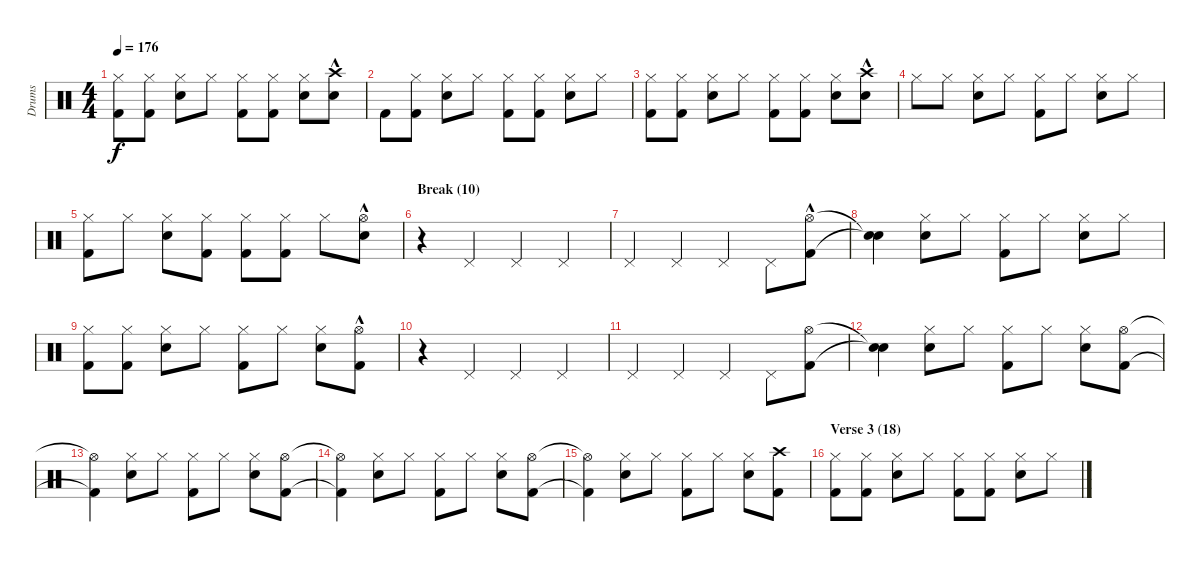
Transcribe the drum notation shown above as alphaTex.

\track ("Drums" "Drums") {instrument percussion}
\staff {score}
\articulation defaults
\ts (4 4)
\tempo 176
\clef neutral
\ks c
("Hi-Hat (closed)" "Kick (hit) 2").8{dy f} ("Hi-Hat (closed)" "Kick (hit) 2").8 ("Hi-Hat (closed)" "Snare (hit) 2").8 "Hi-Hat (closed)".8 ("Hi-Hat (closed)" "Kick (hit) 2").8 ("Hi-Hat (closed)" "Kick (hit) 2").8 ("Hi-Hat (closed)" "Snare (hit) 2").8 ("Crash high (hit)"{hac} "Snare (hit) 2").8 |
"Kick (hit) 2".8 ("Hi-Hat (closed)" "Kick (hit) 2").8 ("Hi-Hat (closed)" "Snare (hit) 2").8 "Hi-Hat (closed)".8 ("Hi-Hat (closed)" "Kick (hit) 2").8 ("Hi-Hat (closed)" "Kick (hit) 2").8 ("Hi-Hat (closed)" "Snare (hit) 2").8 "Hi-Hat (closed)".8 |
("Hi-Hat (closed)" "Kick (hit) 2").8 ("Hi-Hat (closed)" "Kick (hit) 2").8 ("Hi-Hat (closed)" "Snare (hit) 2").8 "Hi-Hat (closed)".8 ("Hi-Hat (closed)" "Kick (hit) 2").8 ("Hi-Hat (closed)" "Kick (hit) 2").8 ("Hi-Hat (closed)" "Snare (hit) 2").8 ("Crash high (hit)"{hac} "Snare (hit) 2").8 |
"Hi-Hat (closed)".8 "Hi-Hat (closed)".8 ("Hi-Hat (closed)" "Snare (hit) 2").8 "Hi-Hat (closed)".8 ("Hi-Hat (closed)" "Kick (hit) 2").8 "Hi-Hat (closed)".8 ("Hi-Hat (closed)" "Snare (hit) 2").8 "Hi-Hat (closed)".8 |
("Hi-Hat (closed)" "Kick (hit) 2").8 "Hi-Hat (closed)".8 ("Hi-Hat (closed)" "Snare (hit) 2").8 ("Hi-Hat (closed)" "Kick (hit) 2").8 ("Hi-Hat (closed)" "Kick (hit) 2").8 ("Hi-Hat (closed)" "Kick (hit) 2").8 "Hi-Hat (closed)".8 ("Hi-Hat (open)"{hac} "Snare (hit) 2").8 |
\section ("" "Break (10)")
r.4 "Pedal Hi-Hat (hit)".4 "Pedal Hi-Hat (hit)".4 "Pedal Hi-Hat (hit)".4 |
"Pedal Hi-Hat (hit)".4 "Pedal Hi-Hat (hit)".4 "Pedal Hi-Hat (hit)".4 "Pedal Hi-Hat (hit)".8 ("Hi-Hat (open)"{hac} "Kick (hit) 2").8 |
("Snare (hit)"{t} "Snare (hit)"{t}).4 ("Hi-Hat (closed)" "Snare (hit) 2").8 "Hi-Hat (closed)".8 ("Hi-Hat (closed)" "Kick (hit) 2").8 "Hi-Hat (closed)".8 ("Hi-Hat (closed)" "Snare (hit) 2").8 "Hi-Hat (closed)".8 |
("Hi-Hat (closed)" "Kick (hit) 2").8 ("Hi-Hat (closed)" "Kick (hit) 2").8 ("Hi-Hat (closed)" "Snare (hit) 2").8 "Hi-Hat (closed)".8 ("Hi-Hat (closed)" "Kick (hit) 2").8 "Hi-Hat (closed)".8 ("Hi-Hat (closed)" "Snare (hit) 2").8 ("Hi-Hat (open)"{hac} "Kick (hit) 2").8 |
r.4 "Pedal Hi-Hat (hit)".4 "Pedal Hi-Hat (hit)".4 "Pedal Hi-Hat (hit)".4 |
"Pedal Hi-Hat (hit)".4 "Pedal Hi-Hat (hit)".4 "Pedal Hi-Hat (hit)".4 "Pedal Hi-Hat (hit)".8 ("Hi-Hat (open)" "Kick (hit) 2").8 |
("Snare (hit)"{t} "Snare (hit)"{t}).4 ("Hi-Hat (closed)" "Snare (hit) 2").8 "Hi-Hat (closed)".8 ("Hi-Hat (closed)" "Kick (hit) 2").8 "Hi-Hat (closed)".8 ("Hi-Hat (closed)" "Snare (hit) 2").8 ("Hi-Hat (open)" "Kick (hit) 2").8 |
("Hi-Hat (open)"{t} "Kick (hit) 2"{t}).4 ("Hi-Hat (closed)" "Snare (hit) 2").8 "Hi-Hat (closed)".8 ("Hi-Hat (closed)" "Kick (hit) 2").8 "Hi-Hat (closed)".8 ("Hi-Hat (closed)" "Snare (hit) 2").8 ("Hi-Hat (open)" "Kick (hit) 2").8 |
("Hi-Hat (open)"{t} "Kick (hit) 2"{t}).4 ("Hi-Hat (closed)" "Snare (hit) 2").8 "Hi-Hat (closed)".8 ("Hi-Hat (closed)" "Kick (hit) 2").8 "Hi-Hat (closed)".8 ("Hi-Hat (closed)" "Snare (hit) 2").8 ("Hi-Hat (open)" "Kick (hit) 2").8 |
("Hi-Hat (open)"{t} "Kick (hit) 2"{t}).4 ("Hi-Hat (closed)" "Snare (hit) 2").8 "Hi-Hat (closed)".8 ("Hi-Hat (closed)" "Kick (hit) 2").8 "Hi-Hat (closed)".8 ("Hi-Hat (closed)" "Snare (hit) 2").8 ("Crash high (hit)" "Kick (hit) 2").8 |
\section ("" "Verse 3 (18)")
("Hi-Hat (closed)" "Kick (hit) 2").8 ("Hi-Hat (closed)" "Kick (hit) 2").8 ("Hi-Hat (closed)" "Snare (hit) 2").8 "Hi-Hat (closed)".8 ("Hi-Hat (closed)" "Kick (hit) 2").8 ("Hi-Hat (closed)" "Kick (hit) 2").8 ("Hi-Hat (closed)" "Snare (hit) 2").8 "Hi-Hat (closed)".8
